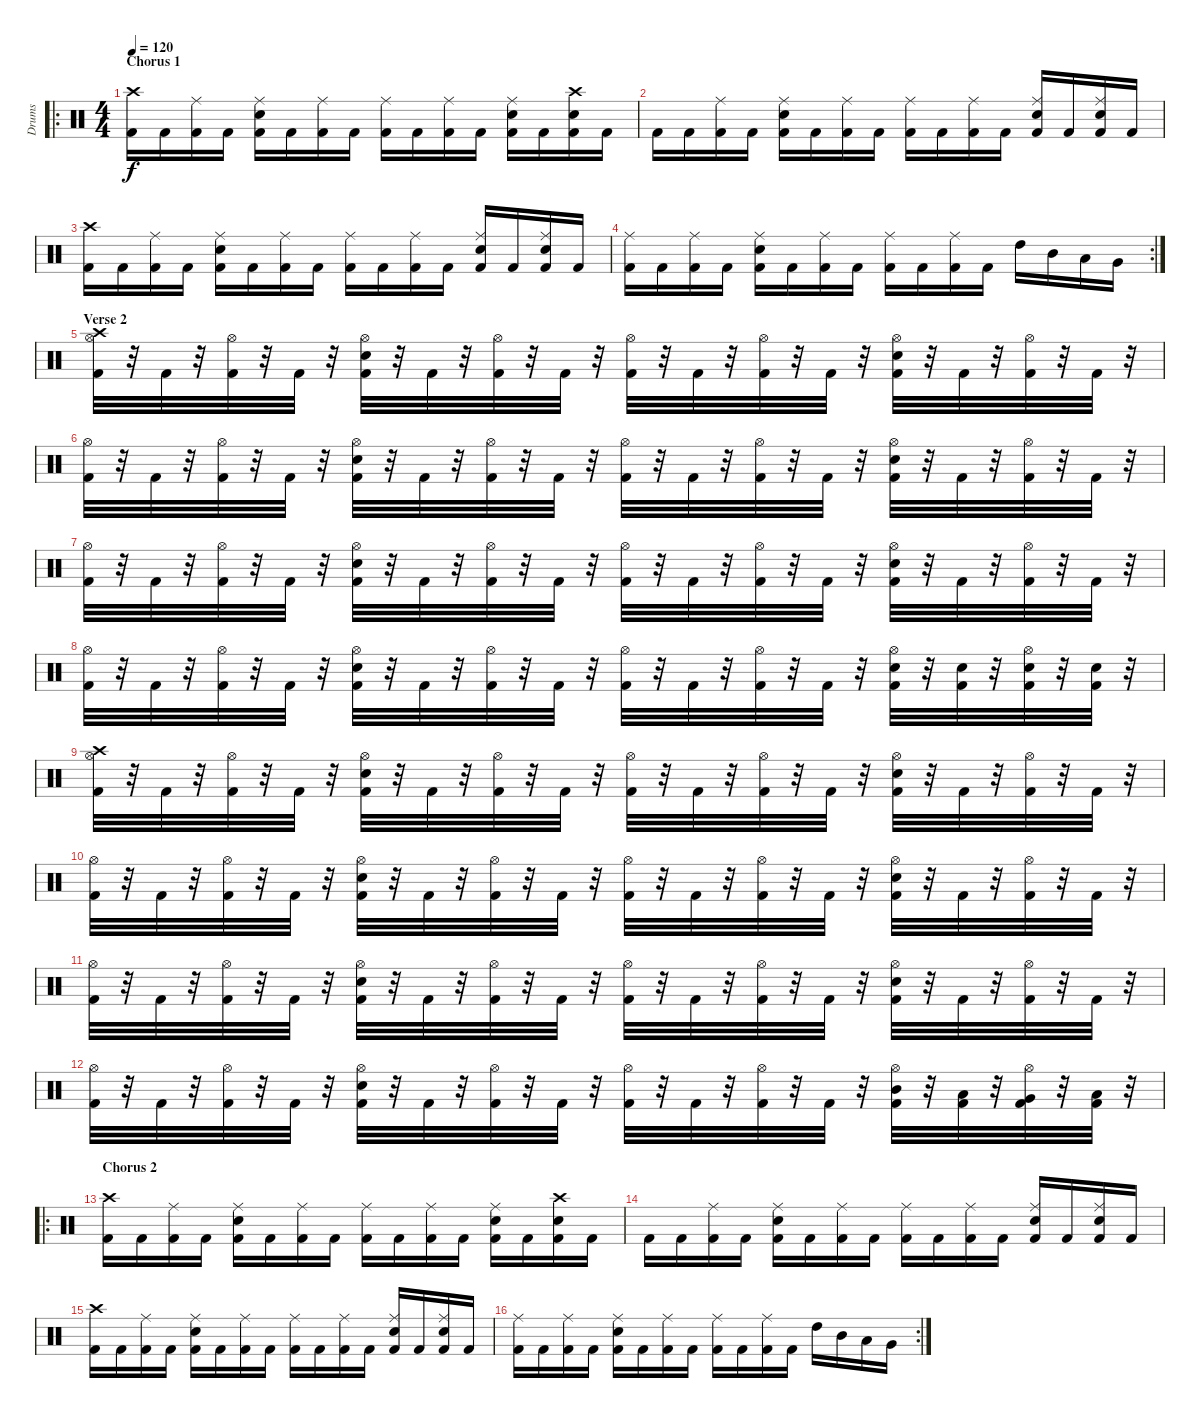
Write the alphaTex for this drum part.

\track ("Drums" "Drums") {instrument percussion}
\staff {score}
\articulation defaults
\ro
\ts (4 4)
\section ("" "Chorus 1")
\tempo 120
\clef neutral
\ks c
("Crash high (hit)" "Kick (hit) 2").16{dy f} "Kick (hit) 2".16 ("Ride (middle)" "Kick (hit) 2").16 "Kick (hit) 2".16 ("Ride (middle)" "Snare (hit) 2" "Kick (hit) 2").16 "Kick (hit) 2".16 ("Ride (middle)" "Kick (hit) 2").16 "Kick (hit) 2".16 ("Ride (middle)" "Kick (hit) 2").16 "Kick (hit) 2".16 ("Ride (middle)" "Kick (hit) 2").16 "Kick (hit) 2".16 ("Ride (middle)" "Snare (hit) 2" "Kick (hit) 2").16 "Kick (hit) 2".16 ("Crash high (hit)" "Snare (hit) 2" "Kick (hit) 2").16 "Kick (hit) 2".16 |
"Kick (hit) 2".16 "Kick (hit) 2".16 ("Ride (middle)" "Kick (hit) 2").16 "Kick (hit) 2".16 ("Ride (middle)" "Snare (hit) 2" "Kick (hit) 2").16 "Kick (hit) 2".16 ("Ride (middle)" "Kick (hit) 2").16 "Kick (hit) 2".16 ("Ride (middle)" "Kick (hit) 2").16 "Kick (hit) 2".16 ("Ride (middle)" "Kick (hit) 2").16 "Kick (hit) 2".16 ("Ride (middle)" "Snare (hit) 2" "Kick (hit) 2").16 "Kick (hit) 2".16 ("Ride (middle)" "Snare (hit) 2" "Kick (hit) 2").16 "Kick (hit) 2".16 |
("Crash high (hit)" "Kick (hit) 2").16 "Kick (hit) 2".16 ("Ride (middle)" "Kick (hit) 2").16 "Kick (hit) 2".16 ("Ride (middle)" "Snare (hit) 2" "Kick (hit) 2").16 "Kick (hit) 2".16 ("Ride (middle)" "Kick (hit) 2").16 "Kick (hit) 2".16 ("Ride (middle)" "Kick (hit) 2").16 "Kick (hit) 2".16 ("Ride (middle)" "Kick (hit) 2").16 "Kick (hit) 2".16 ("Ride (middle)" "Snare (hit) 2" "Kick (hit) 2").16 "Kick (hit) 2".16 ("Ride (middle)" "Snare (hit) 2" "Kick (hit) 2").16 "Kick (hit) 2".16 |
\rc 2
("Ride (middle)" "Kick (hit) 2").16 "Kick (hit) 2".16 ("Ride (middle)" "Kick (hit) 2").16 "Kick (hit) 2".16 ("Ride (middle)" "Snare (hit) 2" "Kick (hit) 2").16 "Kick (hit) 2".16 ("Ride (middle)" "Kick (hit) 2").16 "Kick (hit) 2".16 ("Ride (middle)" "Kick (hit) 2").16 "Kick (hit) 2".16 ("Ride (middle)" "Kick (hit) 2").16 "Kick (hit) 2".16 "High Tom (hit)".16 "Mid Tom (hit)".16 "Low Tom (hit)".16 "Very Low Tom (hit)".16 |
\section ("" "Verse 2")
("Crash high (hit)" "Hi-Hat (open)" "Kick (hit) 2").32 r.32 "Kick (hit) 2".32 r.32 ("Hi-Hat (open)" "Kick (hit) 2").32 r.32 "Kick (hit) 2".32 r.32 ("Hi-Hat (open)" "Snare (hit) 2" "Kick (hit) 2").32 r.32 "Kick (hit) 2".32 r.32 ("Hi-Hat (open)" "Kick (hit) 2").32 r.32 "Kick (hit) 2".32 r.32 ("Hi-Hat (open)" "Kick (hit) 2").32 r.32 "Kick (hit) 2".32 r.32 ("Hi-Hat (open)" "Kick (hit) 2").32 r.32 "Kick (hit) 2".32 r.32 ("Hi-Hat (open)" "Snare (hit) 2" "Kick (hit) 2").32 r.32 "Kick (hit) 2".32 r.32 ("Hi-Hat (open)" "Kick (hit) 2").32 r.32 "Kick (hit) 2".32 r.32 |
("Hi-Hat (open)" "Kick (hit) 2").32 r.32 "Kick (hit) 2".32 r.32 ("Hi-Hat (open)" "Kick (hit) 2").32 r.32 "Kick (hit) 2".32 r.32 ("Hi-Hat (open)" "Snare (hit) 2" "Kick (hit) 2").32 r.32 "Kick (hit) 2".32 r.32 ("Hi-Hat (open)" "Kick (hit) 2").32 r.32 "Kick (hit) 2".32 r.32 ("Hi-Hat (open)" "Kick (hit) 2").32 r.32 "Kick (hit) 2".32 r.32 ("Hi-Hat (open)" "Kick (hit) 2").32 r.32 "Kick (hit) 2".32 r.32 ("Hi-Hat (open)" "Snare (hit) 2" "Kick (hit) 2").32 r.32 "Kick (hit) 2".32 r.32 ("Hi-Hat (open)" "Kick (hit) 2").32 r.32 "Kick (hit) 2".32 r.32 |
("Hi-Hat (open)" "Kick (hit) 2").32 r.32 "Kick (hit) 2".32 r.32 ("Hi-Hat (open)" "Kick (hit) 2").32 r.32 "Kick (hit) 2".32 r.32 ("Hi-Hat (open)" "Snare (hit) 2" "Kick (hit) 2").32 r.32 "Kick (hit) 2".32 r.32 ("Hi-Hat (open)" "Kick (hit) 2").32 r.32 "Kick (hit) 2".32 r.32 ("Hi-Hat (open)" "Kick (hit) 2").32 r.32 "Kick (hit) 2".32 r.32 ("Hi-Hat (open)" "Kick (hit) 2").32 r.32 "Kick (hit) 2".32 r.32 ("Hi-Hat (open)" "Snare (hit) 2" "Kick (hit) 2").32 r.32 "Kick (hit) 2".32 r.32 ("Hi-Hat (open)" "Kick (hit) 2").32 r.32 "Kick (hit) 2".32 r.32 |
("Hi-Hat (open)" "Kick (hit) 2").32 r.32 "Kick (hit) 2".32 r.32 ("Hi-Hat (open)" "Kick (hit) 2").32 r.32 "Kick (hit) 2".32 r.32 ("Hi-Hat (open)" "Snare (hit) 2" "Kick (hit) 2").32 r.32 "Kick (hit) 2".32 r.32 ("Hi-Hat (open)" "Kick (hit) 2").32 r.32 "Kick (hit) 2".32 r.32 ("Hi-Hat (open)" "Kick (hit) 2").32 r.32 "Kick (hit) 2".32 r.32 ("Hi-Hat (open)" "Kick (hit) 2").32 r.32 "Kick (hit) 2".32 r.32 ("Hi-Hat (open)" "Snare (hit) 2" "Kick (hit) 2").32 r.32 ("Snare (hit) 2" "Kick (hit) 2").32 r.32 ("Hi-Hat (open)" "Snare (hit) 2" "Kick (hit) 2").32 r.32 ("Snare (hit) 2" "Kick (hit) 2").32 r.32 |
("Crash high (hit)" "Hi-Hat (open)" "Kick (hit) 2").32 r.32 "Kick (hit) 2".32 r.32 ("Hi-Hat (open)" "Kick (hit) 2").32 r.32 "Kick (hit) 2".32 r.32 ("Hi-Hat (open)" "Snare (hit) 2" "Kick (hit) 2").32 r.32 "Kick (hit) 2".32 r.32 ("Hi-Hat (open)" "Kick (hit) 2").32 r.32 "Kick (hit) 2".32 r.32 ("Hi-Hat (open)" "Kick (hit) 2").32 r.32 "Kick (hit) 2".32 r.32 ("Hi-Hat (open)" "Kick (hit) 2").32 r.32 "Kick (hit) 2".32 r.32 ("Hi-Hat (open)" "Snare (hit) 2" "Kick (hit) 2").32 r.32 "Kick (hit) 2".32 r.32 ("Hi-Hat (open)" "Kick (hit) 2").32 r.32 "Kick (hit) 2".32 r.32 |
("Hi-Hat (open)" "Kick (hit) 2").32 r.32 "Kick (hit) 2".32 r.32 ("Hi-Hat (open)" "Kick (hit) 2").32 r.32 "Kick (hit) 2".32 r.32 ("Hi-Hat (open)" "Snare (hit) 2" "Kick (hit) 2").32 r.32 "Kick (hit) 2".32 r.32 ("Hi-Hat (open)" "Kick (hit) 2").32 r.32 "Kick (hit) 2".32 r.32 ("Hi-Hat (open)" "Kick (hit) 2").32 r.32 "Kick (hit) 2".32 r.32 ("Hi-Hat (open)" "Kick (hit) 2").32 r.32 "Kick (hit) 2".32 r.32 ("Hi-Hat (open)" "Snare (hit) 2" "Kick (hit) 2").32 r.32 "Kick (hit) 2".32 r.32 ("Hi-Hat (open)" "Kick (hit) 2").32 r.32 "Kick (hit) 2".32 r.32 |
("Hi-Hat (open)" "Kick (hit) 2").32 r.32 "Kick (hit) 2".32 r.32 ("Hi-Hat (open)" "Kick (hit) 2").32 r.32 "Kick (hit) 2".32 r.32 ("Hi-Hat (open)" "Snare (hit) 2" "Kick (hit) 2").32 r.32 "Kick (hit) 2".32 r.32 ("Hi-Hat (open)" "Kick (hit) 2").32 r.32 "Kick (hit) 2".32 r.32 ("Hi-Hat (open)" "Kick (hit) 2").32 r.32 "Kick (hit) 2".32 r.32 ("Hi-Hat (open)" "Kick (hit) 2").32 r.32 "Kick (hit) 2".32 r.32 ("Hi-Hat (open)" "Snare (hit) 2" "Kick (hit) 2").32 r.32 "Kick (hit) 2".32 r.32 ("Hi-Hat (open)" "Kick (hit) 2").32 r.32 "Kick (hit) 2".32 r.32 |
("Hi-Hat (open)" "Kick (hit) 2").32 r.32 "Kick (hit) 2".32 r.32 ("Hi-Hat (open)" "Kick (hit) 2").32 r.32 "Kick (hit) 2".32 r.32 ("Hi-Hat (open)" "Snare (hit) 2" "Kick (hit) 2").32 r.32 "Kick (hit) 2".32 r.32 ("Hi-Hat (open)" "Kick (hit) 2").32 r.32 "Kick (hit) 2".32 r.32 ("Hi-Hat (open)" "Kick (hit) 2").32 r.32 "Kick (hit) 2".32 r.32 ("Hi-Hat (open)" "Kick (hit) 2").32 r.32 "Kick (hit) 2".32 r.32 ("Hi-Hat (open)" "Mid Tom (hit)" "Kick (hit) 2").32 r.32 ("Low Tom (hit)" "Kick (hit) 2").32 r.32 ("Hi-Hat (open)" "Very Low Tom (hit)" "Kick (hit) 2").32 r.32 ("Low Floor Tom (hit)" "Kick (hit) 2").32 r.32 |
\ro
\section ("" "Chorus 2")
("Crash high (hit)" "Kick (hit) 2").16 "Kick (hit) 2".16 ("Ride (middle)" "Kick (hit) 2").16 "Kick (hit) 2".16 ("Ride (middle)" "Snare (hit) 2" "Kick (hit) 2").16 "Kick (hit) 2".16 ("Ride (middle)" "Kick (hit) 2").16 "Kick (hit) 2".16 ("Ride (middle)" "Kick (hit) 2").16 "Kick (hit) 2".16 ("Ride (middle)" "Kick (hit) 2").16 "Kick (hit) 2".16 ("Ride (middle)" "Snare (hit) 2" "Kick (hit) 2").16 "Kick (hit) 2".16 ("Crash high (hit)" "Snare (hit) 2" "Kick (hit) 2").16 "Kick (hit) 2".16 |
"Kick (hit) 2".16 "Kick (hit) 2".16 ("Ride (middle)" "Kick (hit) 2").16 "Kick (hit) 2".16 ("Ride (middle)" "Snare (hit) 2" "Kick (hit) 2").16 "Kick (hit) 2".16 ("Ride (middle)" "Kick (hit) 2").16 "Kick (hit) 2".16 ("Ride (middle)" "Kick (hit) 2").16 "Kick (hit) 2".16 ("Ride (middle)" "Kick (hit) 2").16 "Kick (hit) 2".16 ("Ride (middle)" "Snare (hit) 2" "Kick (hit) 2").16 "Kick (hit) 2".16 ("Ride (middle)" "Snare (hit) 2" "Kick (hit) 2").16 "Kick (hit) 2".16 |
("Crash high (hit)" "Kick (hit) 2").16 "Kick (hit) 2".16 ("Ride (middle)" "Kick (hit) 2").16 "Kick (hit) 2".16 ("Ride (middle)" "Snare (hit) 2" "Kick (hit) 2").16 "Kick (hit) 2".16 ("Ride (middle)" "Kick (hit) 2").16 "Kick (hit) 2".16 ("Ride (middle)" "Kick (hit) 2").16 "Kick (hit) 2".16 ("Ride (middle)" "Kick (hit) 2").16 "Kick (hit) 2".16 ("Ride (middle)" "Snare (hit) 2" "Kick (hit) 2").16 "Kick (hit) 2".16 ("Ride (middle)" "Snare (hit) 2" "Kick (hit) 2").16 "Kick (hit) 2".16 |
\rc 2
("Ride (middle)" "Kick (hit) 2").16 "Kick (hit) 2".16 ("Ride (middle)" "Kick (hit) 2").16 "Kick (hit) 2".16 ("Ride (middle)" "Snare (hit) 2" "Kick (hit) 2").16 "Kick (hit) 2".16 ("Ride (middle)" "Kick (hit) 2").16 "Kick (hit) 2".16 ("Ride (middle)" "Kick (hit) 2").16 "Kick (hit) 2".16 ("Ride (middle)" "Kick (hit) 2").16 "Kick (hit) 2".16 "High Tom (hit)".16 "Mid Tom (hit)".16 "Low Tom (hit)".16 "Very Low Tom (hit)".16
